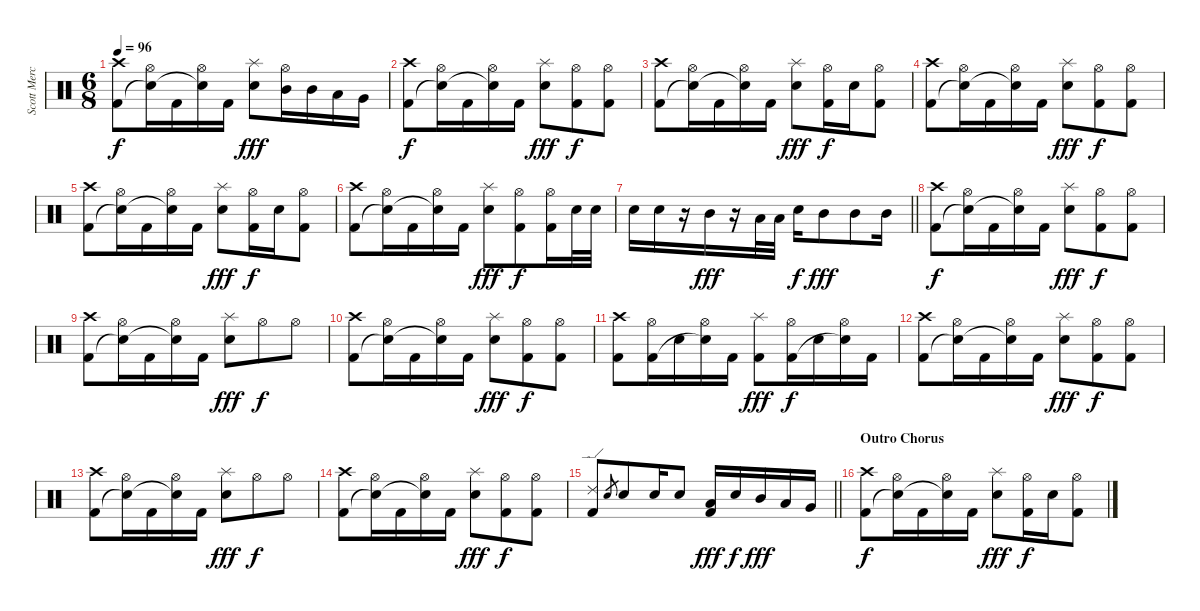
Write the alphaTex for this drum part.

\track ("Scott Mercado Drums" "Scott Merc") {instrument percussion}
\staff {score}
\articulation defaults
\ts (6 8)
\tempo 96
\clef neutral
\ks c
("Crash high (hit)" "Kick (hit) 2").8{dy f} ("Hi-Hat (open)" "Snare (hit)"{t}).16 "Kick (hit) 2".16 ("Hi-Hat (open)" "Snare (hit)"{t}).16 "Kick (hit) 2".16 ("Splash (hit)" "Electric Snare (hit)").8{dy fff} ("Hi-Hat (open)" "Mid Tom (hit)").16 "Mid Tom (hit)".16 "Low Tom (hit)".16 "Very Low Tom (hit)".16 |
("Crash high (hit)" "Kick (hit) 2").8{dy f} ("Hi-Hat (open)" "Snare (hit)"{t}).16 "Kick (hit) 2".16 ("Hi-Hat (open)" "Snare (hit)"{t}).16 "Kick (hit) 2".16 ("Splash (hit)" "Electric Snare (hit)").8{dy fff} ("Hi-Hat (open)" "Kick (hit) 2").8{dy f} ("Hi-Hat (open)" "Kick (hit) 2").8 |
("Crash high (hit)" "Kick (hit) 2").8 ("Hi-Hat (open)" "Snare (hit)"{t}).16 "Kick (hit) 2".16 ("Hi-Hat (open)" "Snare (hit)"{t}).16 "Kick (hit) 2".16 ("Splash (hit)" "Electric Snare (hit)").8{dy fff} ("Hi-Hat (open)" "Kick (hit) 2").16{dy f} "Electric Snare (hit)".16 ("Hi-Hat (open)" "Kick (hit) 2").8 |
("Crash high (hit)" "Kick (hit) 2").8 ("Hi-Hat (open)" "Snare (hit)"{t}).16 "Kick (hit) 2".16 ("Hi-Hat (open)" "Snare (hit)"{t}).16 "Kick (hit) 2".16 ("Splash (hit)" "Electric Snare (hit)").8{dy fff} ("Hi-Hat (open)" "Kick (hit) 2").8{dy f} ("Hi-Hat (open)" "Kick (hit) 2").8 |
("Crash high (hit)" "Kick (hit) 2").8 ("Hi-Hat (open)" "Snare (hit)"{t}).16 "Kick (hit) 2".16 ("Hi-Hat (open)" "Snare (hit)"{t}).16 "Kick (hit) 2".16 ("Splash (hit)" "Electric Snare (hit)").8{dy fff} ("Hi-Hat (open)" "Kick (hit) 2").16{dy f} "Electric Snare (hit)".16 ("Hi-Hat (open)" "Kick (hit) 2").8 |
("Crash high (hit)" "Kick (hit) 2").8 ("Hi-Hat (open)" "Snare (hit)"{t}).16 "Kick (hit) 2".16 ("Hi-Hat (open)" "Snare (hit)"{t}).16 "Kick (hit) 2".16 ("Splash (hit)" "Electric Snare (hit)").8{dy fff} ("Hi-Hat (open)" "Kick (hit) 2").8{dy f} ("Hi-Hat (open)" "Kick (hit) 2").16 "Electric Snare (hit)".32 "Electric Snare (hit)".32 |
\barLineRight lightlight "Electric Snare (hit)".16 "Electric Snare (hit)".16
r.16 "Mid Tom (hit)".16{dy fff} r.16 "Low Tom (hit)".32 "Low Tom (hit)".32 "Electric Snare (hit)".16{dy f} "Mid Tom (hit)".8{dy fff} "Mid Tom (hit)".8 "Mid Tom (hit)".16 |
("Crash high (hit)" "Kick (hit) 2").8{dy f} ("Hi-Hat (open)" "Snare (hit)"{t}).16 "Kick (hit) 2".16 ("Hi-Hat (open)" "Snare (hit)"{t}).16 "Kick (hit) 2".16 ("Splash (hit)" "Electric Snare (hit)").8{dy fff} ("Hi-Hat (open)" "Kick (hit) 2").8{dy f} ("Hi-Hat (open)" "Kick (hit) 2").8 |
("Crash high (hit)" "Kick (hit) 2").8 ("Hi-Hat (open)" "Snare (hit)"{t}).16 "Kick (hit) 2".16 ("Hi-Hat (open)" "Snare (hit)"{t}).16 "Kick (hit) 2".16 ("Splash (hit)" "Electric Snare (hit)").8{dy fff} "Hi-Hat (open)".8{dy f} "Hi-Hat (open)".8 |
("Crash high (hit)" "Kick (hit) 2").8 ("Hi-Hat (open)" "Snare (hit)"{t}).16 "Kick (hit) 2".16 ("Hi-Hat (open)" "Snare (hit)"{t}).16 "Kick (hit) 2".16 ("Splash (hit)" "Electric Snare (hit)").8{dy fff} ("Hi-Hat (open)" "Kick (hit) 2").8{dy f} ("Hi-Hat (open)" "Kick (hit) 2").8 |
("Crash high (hit)" "Kick (hit) 2").8 ("Hi-Hat (open)" "Kick (hit) 2").16 "Electric Snare (hit)".16 ("Hi-Hat (open)" "Snare (hit)"{t}).16 "Kick (hit) 2".16 ("Splash (hit)" "Kick (hit) 2").8{dy fff} ("Hi-Hat (open)" "Kick (hit) 2").16{dy f} "Electric Snare (hit)".16 ("Hi-Hat (open)" "Snare (hit)"{t}).16 "Kick (hit) 2".16 |
("Crash high (hit)" "Kick (hit) 2").8 ("Hi-Hat (open)" "Snare (hit)"{t}).16 "Kick (hit) 2".16 ("Hi-Hat (open)" "Snare (hit)"{t}).16 "Kick (hit) 2".16 ("Splash (hit)" "Electric Snare (hit)").8{dy fff} ("Hi-Hat (open)" "Kick (hit) 2").8{dy f} ("Hi-Hat (open)" "Kick (hit) 2").8 |
("Crash high (hit)" "Kick (hit) 2").8 ("Hi-Hat (open)" "Snare (hit)"{t}).16 "Kick (hit) 2".16 ("Hi-Hat (open)" "Snare (hit)"{t}).16 "Kick (hit) 2".16 ("Splash (hit)" "Electric Snare (hit)").8{dy fff} "Hi-Hat (open)".8{dy f} "Hi-Hat (open)".8 |
("Crash high (hit)" "Kick (hit) 2").8 ("Hi-Hat (open)" "Snare (hit)"{t}).16 "Kick (hit) 2".16 ("Hi-Hat (open)" "Snare (hit)"{t}).16 "Kick (hit) 2".16 ("Splash (hit)" "Electric Snare (hit)").8{dy fff} ("Hi-Hat (open)" "Kick (hit) 2").8{dy f} ("Hi-Hat (open)" "Kick (hit) 2").8 |
\barLineRight lightlight
("Ride (edge) 2" "Kick (hit) 2").8 "Electric Snare (hit)".8{gr} "Electric Snare (hit)".8 "Electric Snare (hit)".16 "Electric Snare (hit)".8 ("Low Tom (hit)" "Kick (hit) 2").16{dy fff} "Electric Snare (hit)".16{dy f} "Mid Tom (hit)".16{dy fff} "Low Tom (hit)".16 "Very Low Tom (hit)".16 |
\section ("" "Outro Chorus")
("Crash high (hit)" "Kick (hit) 2").8{dy f} ("Hi-Hat (open)" "Snare (hit)"{t}).16 "Kick (hit) 2".16 ("Hi-Hat (open)" "Snare (hit)"{t}).16 "Kick (hit) 2".16 ("Splash (hit)" "Electric Snare (hit)").8{dy fff} ("Hi-Hat (open)" "Kick (hit) 2").16{dy f} "Electric Snare (hit)".16 ("Hi-Hat (open)" "Kick (hit) 2").8
